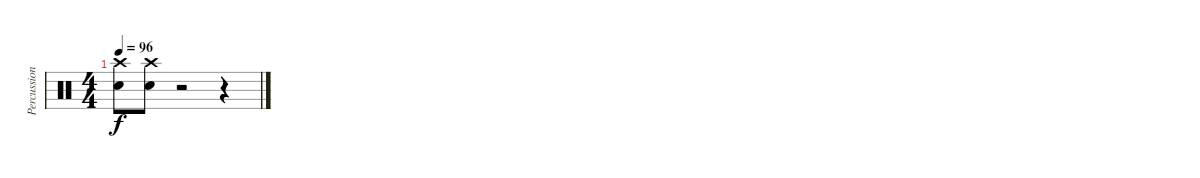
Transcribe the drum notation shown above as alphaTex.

\track ("Percussion" "Percussion") {instrument percussion}
\staff {score}
\articulation defaults
\ts (4 4)
\tempo 96
\clef neutral
\ks c
("Crash high (hit)" "Snare (hit) 2").8{dy f} ("Crash high (hit)" "Snare (hit) 2").8 r.2 r.4
